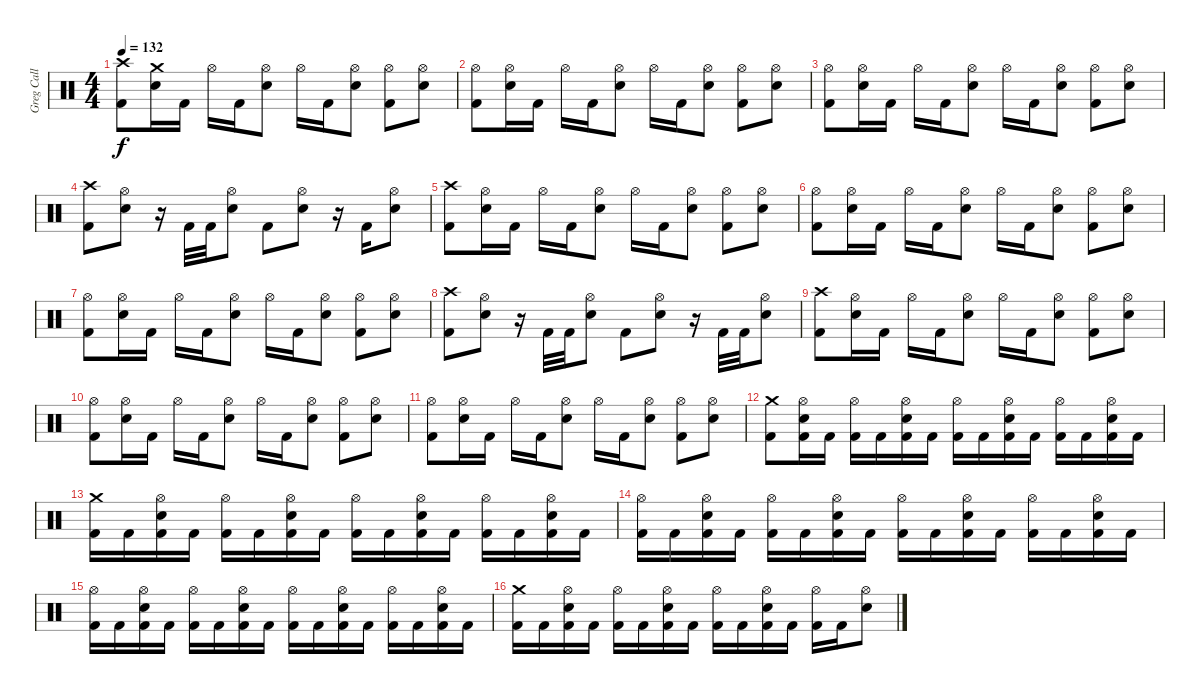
\track ("Greg Call (Drums)" "Greg Call ") {instrument percussion}
\staff {score}
\articulation defaults
\ts (4 4)
\tempo 132
\clef neutral
\ks c
("Crash high (hit)" "Kick (hit) 2").8{dy f} ("Crash medium (hit)" "Snare (hit) 2").16 "Kick (hit) 2".16 "Hi-Hat (open)".16 "Kick (hit) 2".16 ("Hi-Hat (open)" "Snare (hit) 2").8 "Hi-Hat (open)".16 "Kick (hit) 2".16 ("Hi-Hat (open)" "Snare (hit) 2").8 ("Hi-Hat (open)" "Kick (hit) 2").8 ("Hi-Hat (open)" "Snare (hit) 2").8 |
("Hi-Hat (open)" "Kick (hit) 2").8 ("Hi-Hat (open)" "Snare (hit) 2").16 "Kick (hit) 2".16 "Hi-Hat (open)".16 "Kick (hit) 2".16 ("Hi-Hat (open)" "Snare (hit) 2").8 "Hi-Hat (open)".16 "Kick (hit) 2".16 ("Hi-Hat (open)" "Snare (hit) 2").8 ("Hi-Hat (open)" "Kick (hit) 2").8 ("Hi-Hat (open)" "Snare (hit) 2").8 |
("Hi-Hat (open)" "Kick (hit) 2").8 ("Hi-Hat (open)" "Snare (hit) 2").16 "Kick (hit) 2".16 "Hi-Hat (open)".16 "Kick (hit) 2".16 ("Hi-Hat (open)" "Snare (hit) 2").8 "Hi-Hat (open)".16 "Kick (hit) 2".16 ("Hi-Hat (open)" "Snare (hit) 2").8 ("Hi-Hat (open)" "Kick (hit) 2").8 ("Hi-Hat (open)" "Snare (hit) 2").8 |
("Crash high (hit)" "Kick (hit) 2").8 ("Hi-Hat (open)" "Snare (hit) 2").8 r.16 "Kick (hit) 2".32 "Kick (hit) 2".32 ("Hi-Hat (open)" "Snare (hit) 2").8 "Kick (hit) 2".8 ("Hi-Hat (open)" "Snare (hit) 2").8 r.16 "Kick (hit) 2".16 ("Hi-Hat (open)" "Snare (hit) 2").8 |
("Crash high (hit)" "Kick (hit) 2").8 ("Hi-Hat (open)" "Snare (hit) 2").16 "Kick (hit) 2".16 "Hi-Hat (open)".16 "Kick (hit) 2".16 ("Hi-Hat (open)" "Snare (hit) 2").8 "Hi-Hat (open)".16 "Kick (hit) 2".16 ("Hi-Hat (open)" "Snare (hit) 2").8 ("Hi-Hat (open)" "Kick (hit) 2").8 ("Hi-Hat (open)" "Snare (hit) 2").8 |
("Hi-Hat (open)" "Kick (hit) 2").8 ("Hi-Hat (open)" "Snare (hit) 2").16 "Kick (hit) 2".16 "Hi-Hat (open)".16 "Kick (hit) 2".16 ("Hi-Hat (open)" "Snare (hit) 2").8 "Hi-Hat (open)".16 "Kick (hit) 2".16 ("Hi-Hat (open)" "Snare (hit) 2").8 ("Hi-Hat (open)" "Kick (hit) 2").8 ("Hi-Hat (open)" "Snare (hit) 2").8 |
("Hi-Hat (open)" "Kick (hit) 2").8 ("Hi-Hat (open)" "Snare (hit) 2").16 "Kick (hit) 2".16 "Hi-Hat (open)".16 "Kick (hit) 2".16 ("Hi-Hat (open)" "Snare (hit) 2").8 "Hi-Hat (open)".16 "Kick (hit) 2".16 ("Hi-Hat (open)" "Snare (hit) 2").8 ("Hi-Hat (open)" "Kick (hit) 2").8 ("Hi-Hat (open)" "Snare (hit) 2").8 |
("Crash high (hit)" "Kick (hit) 2").8 ("Hi-Hat (open)" "Snare (hit) 2").8 r.16 "Kick (hit) 2".32 "Kick (hit) 2".32 ("Hi-Hat (open)" "Snare (hit) 2").8 "Kick (hit) 2".8 ("Hi-Hat (open)" "Snare (hit) 2").8 r.16 "Kick (hit) 2".32 "Kick (hit) 2".32 ("Hi-Hat (open)" "Snare (hit) 2").8 |
("Crash high (hit)" "Kick (hit) 2").8 ("Hi-Hat (open)" "Snare (hit) 2").16 "Kick (hit) 2".16 "Hi-Hat (open)".16 "Kick (hit) 2".16 ("Hi-Hat (open)" "Snare (hit) 2").8 "Hi-Hat (open)".16 "Kick (hit) 2".16 ("Hi-Hat (open)" "Snare (hit) 2").8 ("Hi-Hat (open)" "Kick (hit) 2").8 ("Hi-Hat (open)" "Snare (hit) 2").8 |
("Hi-Hat (open)" "Kick (hit) 2").8 ("Hi-Hat (open)" "Snare (hit) 2").16 "Kick (hit) 2".16 "Hi-Hat (open)".16 "Kick (hit) 2".16 ("Hi-Hat (open)" "Snare (hit) 2").8 "Hi-Hat (open)".16 "Kick (hit) 2".16 ("Hi-Hat (open)" "Snare (hit) 2").8 ("Hi-Hat (open)" "Kick (hit) 2").8 ("Hi-Hat (open)" "Snare (hit) 2").8 |
("Hi-Hat (open)" "Kick (hit) 2").8 ("Hi-Hat (open)" "Snare (hit) 2").16 "Kick (hit) 2".16 "Hi-Hat (open)".16 "Kick (hit) 2".16 ("Hi-Hat (open)" "Snare (hit) 2").8 "Hi-Hat (open)".16 "Kick (hit) 2".16 ("Hi-Hat (open)" "Snare (hit) 2").8 ("Hi-Hat (open)" "Kick (hit) 2").8 ("Hi-Hat (open)" "Snare (hit) 2").8 |
("Crash medium (hit)" "Kick (hit) 2").8 ("Hi-Hat (open)" "Snare (hit) 2" "Kick (hit) 2").16 "Kick (hit) 2".16 ("Hi-Hat (open)" "Kick (hit) 2").16 "Kick (hit) 2".16 ("Hi-Hat (open)" "Snare (hit) 2" "Kick (hit) 2").16 "Kick (hit) 2".16 ("Hi-Hat (open)" "Kick (hit) 2").16 "Kick (hit) 2".16 ("Hi-Hat (open)" "Snare (hit) 2" "Kick (hit) 2").16 "Kick (hit) 2".16 ("Hi-Hat (open)" "Kick (hit) 2").16 "Kick (hit) 2".16 ("Hi-Hat (open)" "Snare (hit) 2" "Kick (hit) 2").16 "Kick (hit) 2".16 |
("Crash medium (hit)" "Kick (hit) 2").16 "Kick (hit) 2".16 ("Hi-Hat (open)" "Snare (hit) 2" "Kick (hit) 2").16 "Kick (hit) 2".16 ("Hi-Hat (open)" "Kick (hit) 2").16 "Kick (hit) 2".16 ("Hi-Hat (open)" "Snare (hit) 2" "Kick (hit) 2").16 "Kick (hit) 2".16 ("Hi-Hat (open)" "Kick (hit) 2").16 "Kick (hit) 2".16 ("Hi-Hat (open)" "Snare (hit) 2" "Kick (hit) 2").16 "Kick (hit) 2".16 ("Hi-Hat (open)" "Kick (hit) 2").16 "Kick (hit) 2".16 ("Hi-Hat (open)" "Snare (hit) 2" "Kick (hit) 2").16 "Kick (hit) 2".16 |
("Hi-Hat (open)" "Kick (hit) 2").16 "Kick (hit) 2".16 ("Hi-Hat (open)" "Snare (hit) 2" "Kick (hit) 2").16 "Kick (hit) 2".16 ("Hi-Hat (open)" "Kick (hit) 2").16 "Kick (hit) 2".16 ("Hi-Hat (open)" "Snare (hit) 2" "Kick (hit) 2").16 "Kick (hit) 2".16 ("Hi-Hat (open)" "Kick (hit) 2").16 "Kick (hit) 2".16 ("Hi-Hat (open)" "Snare (hit) 2" "Kick (hit) 2").16 "Kick (hit) 2".16 ("Hi-Hat (open)" "Kick (hit) 2").16 "Kick (hit) 2".16 ("Hi-Hat (open)" "Snare (hit) 2" "Kick (hit) 2").16 "Kick (hit) 2".16 |
("Hi-Hat (open)" "Kick (hit) 2").16 "Kick (hit) 2".16 ("Hi-Hat (open)" "Snare (hit) 2" "Kick (hit) 2").16 "Kick (hit) 2".16 ("Hi-Hat (open)" "Kick (hit) 2").16 "Kick (hit) 2".16 ("Hi-Hat (open)" "Snare (hit) 2" "Kick (hit) 2").16 "Kick (hit) 2".16 ("Hi-Hat (open)" "Kick (hit) 2").16 "Kick (hit) 2".16 ("Hi-Hat (open)" "Snare (hit) 2" "Kick (hit) 2").16 "Kick (hit) 2".16 ("Hi-Hat (open)" "Kick (hit) 2").16 "Kick (hit) 2".16 ("Hi-Hat (open)" "Snare (hit) 2" "Kick (hit) 2").16 "Kick (hit) 2".16 |
("Crash medium (hit)" "Kick (hit) 2").16 "Kick (hit) 2".16 ("Hi-Hat (open)" "Snare (hit) 2" "Kick (hit) 2").16 "Kick (hit) 2".16 ("Hi-Hat (open)" "Kick (hit) 2").16 "Kick (hit) 2".16 ("Hi-Hat (open)" "Snare (hit) 2" "Kick (hit) 2").16 "Kick (hit) 2".16 ("Hi-Hat (open)" "Kick (hit) 2").16 "Kick (hit) 2".16 ("Hi-Hat (open)" "Snare (hit) 2" "Kick (hit) 2").16 "Kick (hit) 2".16 ("Hi-Hat (open)" "Kick (hit) 2").16 "Kick (hit) 2".16 ("Hi-Hat (open)" "Snare (hit) 2").8
